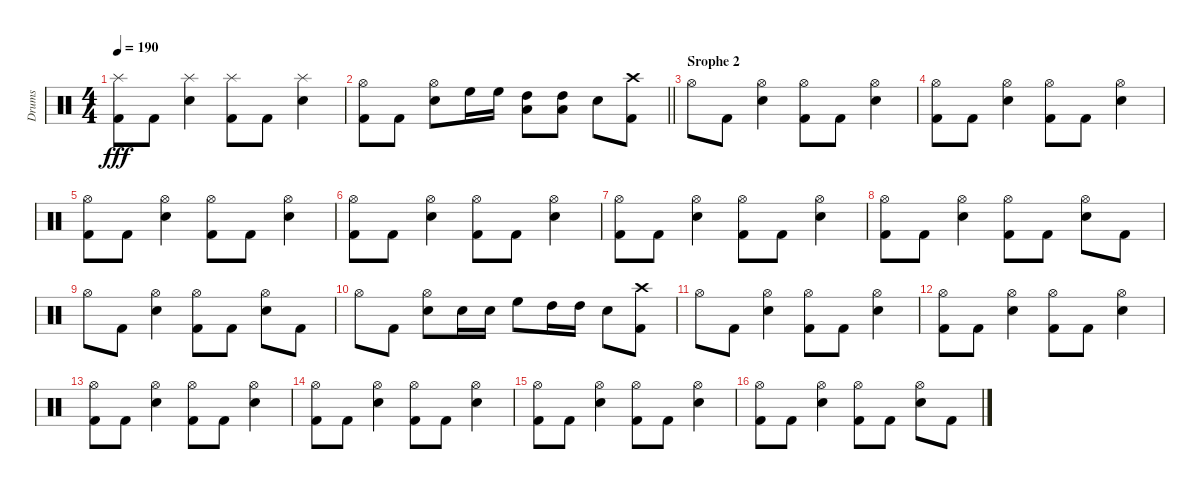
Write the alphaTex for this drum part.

\track ("Drums" "Drums") {instrument percussion}
\staff {score}
\articulation defaults
\ts (4 4)
\tempo 190
\clef neutral
\ks c
("Kick (hit) 2" "Splash (hit)").8{dy fff} "Kick (hit) 2".8 ("Electric Snare (hit)" "Splash (hit)").4 ("Kick (hit) 2" "Splash (hit)").8 "Kick (hit) 2".8 ("Electric Snare (hit)" "Splash (hit)").4 |
\barLineRight lightlight
("Kick (hit) 2" "Hi-Hat (open)").8 "Kick (hit) 2".8 ("Electric Snare (hit)" "Hi-Hat (open)").8 "High Floor Tom (hit)".16 "High Floor Tom (hit)".16 ("High Tom (hit)" "Low Tom (hit)").8 ("High Tom (hit)" "Low Tom (hit)").8 "Electric Snare (hit)".8 ("Kick (hit) 2" "Crash high (hit)").8 |
\section ("" "Srophe 2")
"Hi-Hat (open)".8 "Kick (hit) 2".8 ("Electric Snare (hit)" "Hi-Hat (open)").4 ("Kick (hit) 2" "Hi-Hat (open)").8 "Kick (hit) 2".8 ("Electric Snare (hit)" "Hi-Hat (open)").4 |
("Kick (hit) 2" "Hi-Hat (open)").8 "Kick (hit) 2".8 ("Electric Snare (hit)" "Hi-Hat (open)").4 ("Kick (hit) 2" "Hi-Hat (open)").8 "Kick (hit) 2".8 ("Electric Snare (hit)" "Hi-Hat (open)").4 |
("Kick (hit) 2" "Hi-Hat (open)").8 "Kick (hit) 2".8 ("Electric Snare (hit)" "Hi-Hat (open)").4 ("Kick (hit) 2" "Hi-Hat (open)").8 "Kick (hit) 2".8 ("Electric Snare (hit)" "Hi-Hat (open)").4 |
("Kick (hit) 2" "Hi-Hat (open)").8 "Kick (hit) 2".8 ("Electric Snare (hit)" "Hi-Hat (open)").4 ("Kick (hit) 2" "Hi-Hat (open)").8 "Kick (hit) 2".8 ("Electric Snare (hit)" "Hi-Hat (open)").4 |
("Kick (hit) 2" "Hi-Hat (open)").8 "Kick (hit) 2".8 ("Electric Snare (hit)" "Hi-Hat (open)").4 ("Kick (hit) 2" "Hi-Hat (open)").8 "Kick (hit) 2".8 ("Electric Snare (hit)" "Hi-Hat (open)").4 |
("Kick (hit) 2" "Hi-Hat (open)").8 "Kick (hit) 2".8 ("Electric Snare (hit)" "Hi-Hat (open)").4 ("Kick (hit) 2" "Hi-Hat (open)").8 "Kick (hit) 2".8 ("Electric Snare (hit)" "Hi-Hat (open)").8 "Kick (hit) 2".8 |
"Hi-Hat (open)".8 "Kick (hit) 2".8 ("Electric Snare (hit)" "Hi-Hat (open)").4 ("Kick (hit) 2" "Hi-Hat (open)").8 "Kick (hit) 2".8 ("Electric Snare (hit)" "Hi-Hat (open)").8 "Kick (hit) 2".8 |
"Hi-Hat (open)".8 "Kick (hit) 2".8 ("Electric Snare (hit)" "Hi-Hat (open)").8 "Electric Snare (hit)".16 "Electric Snare (hit)".16 "High Floor Tom (hit)".8 "High Tom (hit)".16 "High Tom (hit)".16 "Electric Snare (hit)".8 ("Kick (hit) 2" "Crash high (hit)").8 |
"Hi-Hat (open)".8 "Kick (hit) 2".8 ("Electric Snare (hit)" "Hi-Hat (open)").4 ("Kick (hit) 2" "Hi-Hat (open)").8 "Kick (hit) 2".8 ("Electric Snare (hit)" "Hi-Hat (open)").4 |
("Kick (hit) 2" "Hi-Hat (open)").8 "Kick (hit) 2".8 ("Electric Snare (hit)" "Hi-Hat (open)").4 ("Kick (hit) 2" "Hi-Hat (open)").8 "Kick (hit) 2".8 ("Electric Snare (hit)" "Hi-Hat (open)").4 |
("Kick (hit) 2" "Hi-Hat (open)").8 "Kick (hit) 2".8 ("Electric Snare (hit)" "Hi-Hat (open)").4 ("Kick (hit) 2" "Hi-Hat (open)").8 "Kick (hit) 2".8 ("Electric Snare (hit)" "Hi-Hat (open)").4 |
("Kick (hit) 2" "Hi-Hat (open)").8 "Kick (hit) 2".8 ("Electric Snare (hit)" "Hi-Hat (open)").4 ("Kick (hit) 2" "Hi-Hat (open)").8 "Kick (hit) 2".8 ("Electric Snare (hit)" "Hi-Hat (open)").4 |
("Kick (hit) 2" "Hi-Hat (open)").8 "Kick (hit) 2".8 ("Electric Snare (hit)" "Hi-Hat (open)").4 ("Kick (hit) 2" "Hi-Hat (open)").8 "Kick (hit) 2".8 ("Electric Snare (hit)" "Hi-Hat (open)").4 |
("Kick (hit) 2" "Hi-Hat (open)").8 "Kick (hit) 2".8 ("Electric Snare (hit)" "Hi-Hat (open)").4 ("Kick (hit) 2" "Hi-Hat (open)").8 "Kick (hit) 2".8 ("Electric Snare (hit)" "Hi-Hat (open)").8 "Kick (hit) 2".8
